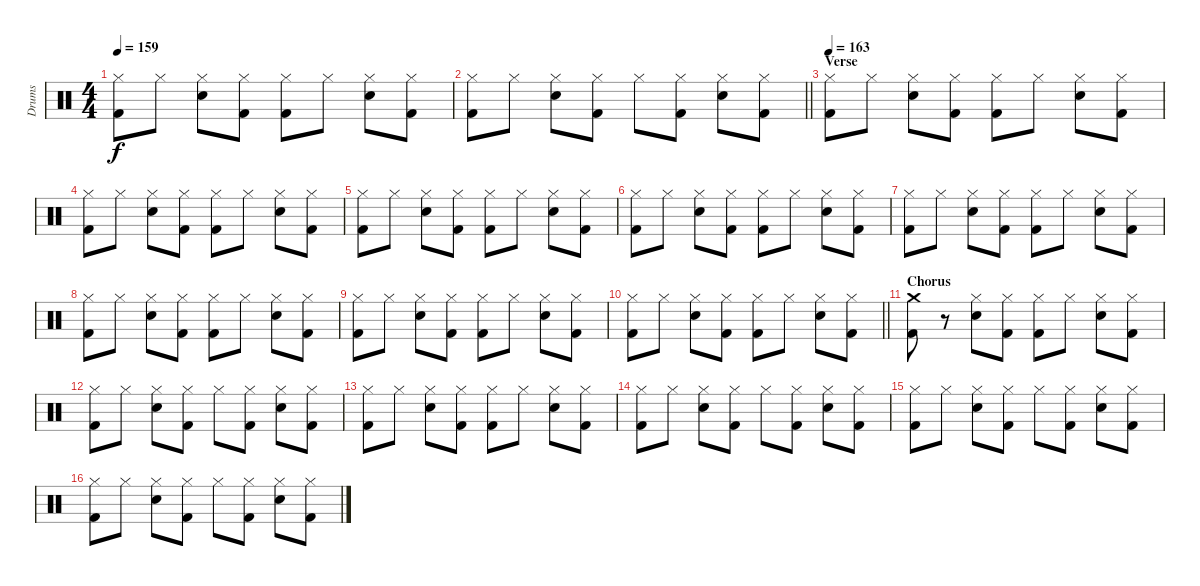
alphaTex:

\track ("Drums" "Drums") {instrument percussion}
\staff {score}
\articulation defaults
\ts (4 4)
\tempo 159
\clef neutral
\ks c
("Hi-Hat (closed)" "Kick (hit) 2").8{dy f} "Hi-Hat (closed)".8 ("Hi-Hat (closed)" "Snare (hit) 2").8 ("Hi-Hat (closed)" "Kick (hit) 2").8 ("Hi-Hat (closed)" "Kick (hit) 2").8 "Hi-Hat (closed)".8 ("Hi-Hat (closed)" "Snare (hit) 2").8 ("Hi-Hat (closed)" "Kick (hit) 2").8 |
\barLineRight lightlight
("Hi-Hat (closed)" "Kick (hit) 2").8 "Hi-Hat (closed)".8 ("Hi-Hat (closed)" "Snare (hit) 2").8 ("Hi-Hat (closed)" "Kick (hit) 2").8 "Hi-Hat (closed)".8 ("Hi-Hat (closed)" "Kick (hit) 2").8 ("Hi-Hat (closed)" "Snare (hit) 2").8 ("Hi-Hat (closed)" "Kick (hit) 2").8 |
\section ("" "Verse")
\tempo 163
("Hi-Hat (closed)" "Kick (hit) 2").8 "Hi-Hat (closed)".8 ("Hi-Hat (closed)" "Snare (hit) 2").8 ("Hi-Hat (closed)" "Kick (hit) 2").8 ("Hi-Hat (closed)" "Kick (hit) 2").8 "Hi-Hat (closed)".8 ("Hi-Hat (closed)" "Snare (hit) 2").8 ("Hi-Hat (closed)" "Kick (hit) 2").8 |
("Hi-Hat (closed)" "Kick (hit) 2").8 "Hi-Hat (closed)".8 ("Hi-Hat (closed)" "Snare (hit) 2").8 ("Hi-Hat (closed)" "Kick (hit) 2").8 ("Hi-Hat (closed)" "Kick (hit) 2").8 "Hi-Hat (closed)".8 ("Hi-Hat (closed)" "Snare (hit) 2").8 ("Hi-Hat (closed)" "Kick (hit) 2").8 |
("Hi-Hat (closed)" "Kick (hit) 2").8 "Hi-Hat (closed)".8 ("Hi-Hat (closed)" "Snare (hit) 2").8 ("Hi-Hat (closed)" "Kick (hit) 2").8 ("Hi-Hat (closed)" "Kick (hit) 2").8 "Hi-Hat (closed)".8 ("Hi-Hat (closed)" "Snare (hit) 2").8 ("Hi-Hat (closed)" "Kick (hit) 2").8 |
("Hi-Hat (closed)" "Kick (hit) 2").8 "Hi-Hat (closed)".8 ("Hi-Hat (closed)" "Snare (hit) 2").8 ("Hi-Hat (closed)" "Kick (hit) 2").8 ("Hi-Hat (closed)" "Kick (hit) 2").8 "Hi-Hat (closed)".8 ("Hi-Hat (closed)" "Snare (hit) 2").8 ("Hi-Hat (closed)" "Kick (hit) 2").8 |
("Hi-Hat (closed)" "Kick (hit) 2").8 "Hi-Hat (closed)".8 ("Hi-Hat (closed)" "Snare (hit) 2").8 ("Hi-Hat (closed)" "Kick (hit) 2").8 ("Hi-Hat (closed)" "Kick (hit) 2").8 "Hi-Hat (closed)".8 ("Hi-Hat (closed)" "Snare (hit) 2").8 ("Hi-Hat (closed)" "Kick (hit) 2").8 |
("Hi-Hat (closed)" "Kick (hit) 2").8 "Hi-Hat (closed)".8 ("Hi-Hat (closed)" "Snare (hit) 2").8 ("Hi-Hat (closed)" "Kick (hit) 2").8 ("Hi-Hat (closed)" "Kick (hit) 2").8 "Hi-Hat (closed)".8 ("Hi-Hat (closed)" "Snare (hit) 2").8 ("Hi-Hat (closed)" "Kick (hit) 2").8 |
("Hi-Hat (closed)" "Kick (hit) 2").8 "Hi-Hat (closed)".8 ("Hi-Hat (closed)" "Snare (hit) 2").8 ("Hi-Hat (closed)" "Kick (hit) 2").8 ("Hi-Hat (closed)" "Kick (hit) 2").8 "Hi-Hat (closed)".8 ("Hi-Hat (closed)" "Snare (hit) 2").8 ("Hi-Hat (closed)" "Kick (hit) 2").8 |
\barLineRight lightlight
("Hi-Hat (closed)" "Kick (hit) 2").8 "Hi-Hat (closed)".8 ("Hi-Hat (closed)" "Snare (hit) 2").8 ("Hi-Hat (closed)" "Kick (hit) 2").8 ("Hi-Hat (closed)" "Kick (hit) 2").8 "Hi-Hat (closed)".8 ("Hi-Hat (closed)" "Snare (hit) 2").8 ("Hi-Hat (closed)" "Kick (hit) 2").8 |
\section ("" "Chorus")
("Crash medium (hit)" "Kick (hit) 2").8 r.8 ("Hi-Hat (closed)" "Snare (hit) 2").8 ("Hi-Hat (closed)" "Kick (hit) 2").8 ("Hi-Hat (closed)" "Kick (hit) 2").8 "Hi-Hat (closed)".8 ("Hi-Hat (closed)" "Snare (hit) 2").8 ("Hi-Hat (closed)" "Kick (hit) 2").8 |
("Hi-Hat (closed)" "Kick (hit) 2").8 "Hi-Hat (closed)".8 ("Hi-Hat (closed)" "Snare (hit) 2").8 ("Hi-Hat (closed)" "Kick (hit) 2").8 "Hi-Hat (closed)".8 ("Hi-Hat (closed)" "Kick (hit) 2").8 ("Hi-Hat (closed)" "Snare (hit) 2").8 ("Hi-Hat (closed)" "Kick (hit) 2").8 |
("Hi-Hat (closed)" "Kick (hit) 2").8 "Hi-Hat (closed)".8 ("Hi-Hat (closed)" "Snare (hit) 2").8 ("Hi-Hat (closed)" "Kick (hit) 2").8 ("Hi-Hat (closed)" "Kick (hit) 2").8 "Hi-Hat (closed)".8 ("Hi-Hat (closed)" "Snare (hit) 2").8 ("Hi-Hat (closed)" "Kick (hit) 2").8 |
("Hi-Hat (closed)" "Kick (hit) 2").8 "Hi-Hat (closed)".8 ("Hi-Hat (closed)" "Snare (hit) 2").8 ("Hi-Hat (closed)" "Kick (hit) 2").8 "Hi-Hat (closed)".8 ("Hi-Hat (closed)" "Kick (hit) 2").8 ("Hi-Hat (closed)" "Snare (hit) 2").8 ("Hi-Hat (closed)" "Kick (hit) 2").8 |
("Hi-Hat (closed)" "Kick (hit) 2").8 "Hi-Hat (closed)".8 ("Hi-Hat (closed)" "Snare (hit) 2").8 ("Hi-Hat (closed)" "Kick (hit) 2").8 "Hi-Hat (closed)".8 ("Hi-Hat (closed)" "Kick (hit) 2").8 ("Hi-Hat (closed)" "Snare (hit) 2").8 ("Hi-Hat (closed)" "Kick (hit) 2").8 |
("Hi-Hat (closed)" "Kick (hit) 2").8 "Hi-Hat (closed)".8 ("Hi-Hat (closed)" "Snare (hit) 2").8 ("Hi-Hat (closed)" "Kick (hit) 2").8 "Hi-Hat (closed)".8 ("Hi-Hat (closed)" "Kick (hit) 2").8 ("Hi-Hat (closed)" "Snare (hit) 2").8 ("Hi-Hat (closed)" "Kick (hit) 2").8
